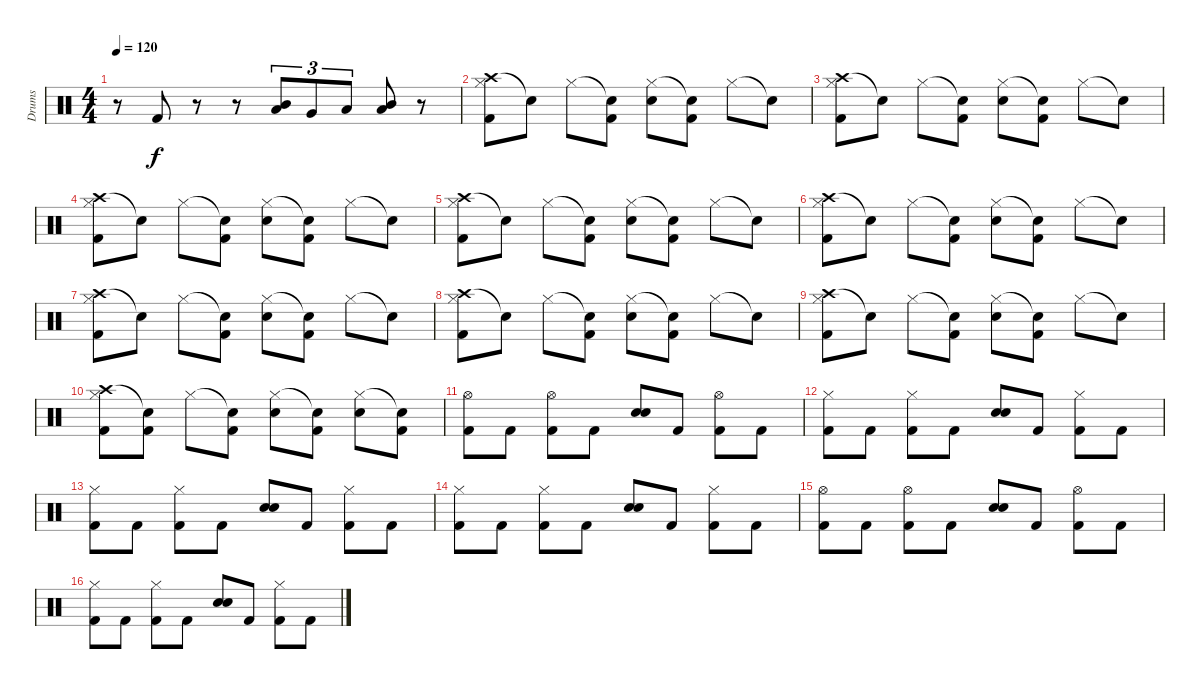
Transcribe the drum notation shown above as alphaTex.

\track ("Drums" "Drums") {instrument percussion}
\staff {score}
\articulation defaults
\ts (4 4)
\tempo 120
\clef neutral
\ks c
r.8{dy f} "Kick (hit) 2".8 r.8 r.8 ("Mid Tom (hit)" "Low Tom (hit)").8{tu (3 2)} "Very Low Tom (hit)".8{tu (3 2)} "Low Floor Tom (hit)".8{tu (3 2)} ("Mid Tom (hit)" "Low Tom (hit)").8 r.8 |
("Crash high (hit)" "Hi-Hat (closed)" "Kick (hit) 2").8 "Snare (hit)"{t}.8 "Hi-Hat (closed)".8 ("Snare (hit)"{t} "Kick (hit) 2").8 ("Hi-Hat (closed)" "Electric Snare (hit)").8 ("Snare (hit)"{t} "Kick (hit) 2").8 "Hi-Hat (closed)".8 "Snare (hit)"{t}.8 |
("Crash high (hit)" "Hi-Hat (closed)" "Kick (hit) 2").8 "Snare (hit)"{t}.8 "Hi-Hat (closed)".8 ("Snare (hit)"{t} "Kick (hit) 2").8 ("Hi-Hat (closed)" "Electric Snare (hit)").8 ("Snare (hit)"{t} "Kick (hit) 2").8 "Hi-Hat (closed)".8 "Snare (hit)"{t}.8 |
("Crash high (hit)" "Hi-Hat (closed)" "Kick (hit) 2").8 "Snare (hit)"{t}.8 "Hi-Hat (closed)".8 ("Snare (hit)"{t} "Kick (hit) 2").8 ("Hi-Hat (closed)" "Electric Snare (hit)").8 ("Snare (hit)"{t} "Kick (hit) 2").8 "Hi-Hat (closed)".8 "Snare (hit)"{t}.8 |
("Crash high (hit)" "Hi-Hat (closed)" "Kick (hit) 2").8 "Snare (hit)"{t}.8 "Hi-Hat (closed)".8 ("Snare (hit)"{t} "Kick (hit) 2").8 ("Hi-Hat (closed)" "Electric Snare (hit)").8 ("Snare (hit)"{t} "Kick (hit) 2").8 "Hi-Hat (closed)".8 "Snare (hit)"{t}.8 |
("Crash high (hit)" "Hi-Hat (closed)" "Kick (hit) 2").8 "Snare (hit)"{t}.8 "Hi-Hat (closed)".8 ("Snare (hit)"{t} "Kick (hit) 2").8 ("Hi-Hat (closed)" "Electric Snare (hit)").8 ("Snare (hit)"{t} "Kick (hit) 2").8 "Hi-Hat (closed)".8 "Snare (hit)"{t}.8 |
("Crash high (hit)" "Hi-Hat (closed)" "Kick (hit) 2").8 "Snare (hit)"{t}.8 "Hi-Hat (closed)".8 ("Snare (hit)"{t} "Kick (hit) 2").8 ("Hi-Hat (closed)" "Electric Snare (hit)").8 ("Snare (hit)"{t} "Kick (hit) 2").8 "Hi-Hat (closed)".8 "Snare (hit)"{t}.8 |
("Crash high (hit)" "Hi-Hat (closed)" "Kick (hit) 2").8 "Snare (hit)"{t}.8 "Hi-Hat (closed)".8 ("Snare (hit)"{t} "Kick (hit) 2").8 ("Hi-Hat (closed)" "Electric Snare (hit)").8 ("Snare (hit)"{t} "Kick (hit) 2").8 "Hi-Hat (closed)".8 "Snare (hit)"{t}.8 |
("Crash high (hit)" "Hi-Hat (closed)" "Kick (hit) 2").8 "Snare (hit)"{t}.8 "Hi-Hat (closed)".8 ("Snare (hit)"{t} "Kick (hit) 2").8 ("Hi-Hat (closed)" "Electric Snare (hit)").8 ("Snare (hit)"{t} "Kick (hit) 2").8 "Hi-Hat (closed)".8 "Snare (hit)"{t}.8 |
("Crash high (hit)" "Hi-Hat (closed)" "Kick (hit) 2").8 ("Snare (hit)"{t} "Kick (hit) 2").8 "Hi-Hat (closed)".8 ("Snare (hit)"{t} "Kick (hit) 2").8 ("Hi-Hat (closed)" "Electric Snare (hit)").8 ("Snare (hit)"{t} "Kick (hit) 2").8 ("Hi-Hat (closed)" "Electric Snare (hit)").8 ("Snare (hit)"{t} "Kick (hit) 2").8 |
("Hi-Hat (open)" "Kick (hit) 2").8 "Kick (hit) 2".8 ("Hi-Hat (open)" "Kick (hit) 2").8 "Kick (hit) 2".8 ("Electric Snare (hit)" "Electric Snare (hit)").8 "Kick (hit) 2".8 ("Hi-Hat (open)" "Kick (hit) 2").8 "Kick (hit) 2".8 |
("Hi-Hat (closed)" "Kick (hit) 2").8 "Kick (hit) 2".8 ("Hi-Hat (closed)" "Kick (hit) 2").8 "Kick (hit) 2".8 ("Electric Snare (hit)" "Electric Snare (hit)").8 "Kick (hit) 2".8 ("Hi-Hat (closed)" "Kick (hit) 2").8 "Kick (hit) 2".8 |
("Hi-Hat (closed)" "Kick (hit) 2").8 "Kick (hit) 2".8 ("Hi-Hat (closed)" "Kick (hit) 2").8 "Kick (hit) 2".8 ("Electric Snare (hit)" "Electric Snare (hit)").8 "Kick (hit) 2".8 ("Hi-Hat (closed)" "Kick (hit) 2").8 "Kick (hit) 2".8 |
("Hi-Hat (closed)" "Kick (hit) 2").8 "Kick (hit) 2".8 ("Hi-Hat (closed)" "Kick (hit) 2").8 "Kick (hit) 2".8 ("Electric Snare (hit)" "Electric Snare (hit)").8 "Kick (hit) 2".8 ("Hi-Hat (closed)" "Kick (hit) 2").8 "Kick (hit) 2".8 |
("Hi-Hat (open)" "Kick (hit) 2").8 "Kick (hit) 2".8 ("Hi-Hat (open)" "Kick (hit) 2").8 "Kick (hit) 2".8 ("Electric Snare (hit)" "Electric Snare (hit)").8 "Kick (hit) 2".8 ("Hi-Hat (open)" "Kick (hit) 2").8 "Kick (hit) 2".8 |
("Hi-Hat (closed)" "Kick (hit) 2").8 "Kick (hit) 2".8 ("Hi-Hat (closed)" "Kick (hit) 2").8 "Kick (hit) 2".8 ("Electric Snare (hit)" "Electric Snare (hit)").8 "Kick (hit) 2".8 ("Hi-Hat (closed)" "Kick (hit) 2").8 "Kick (hit) 2".8
